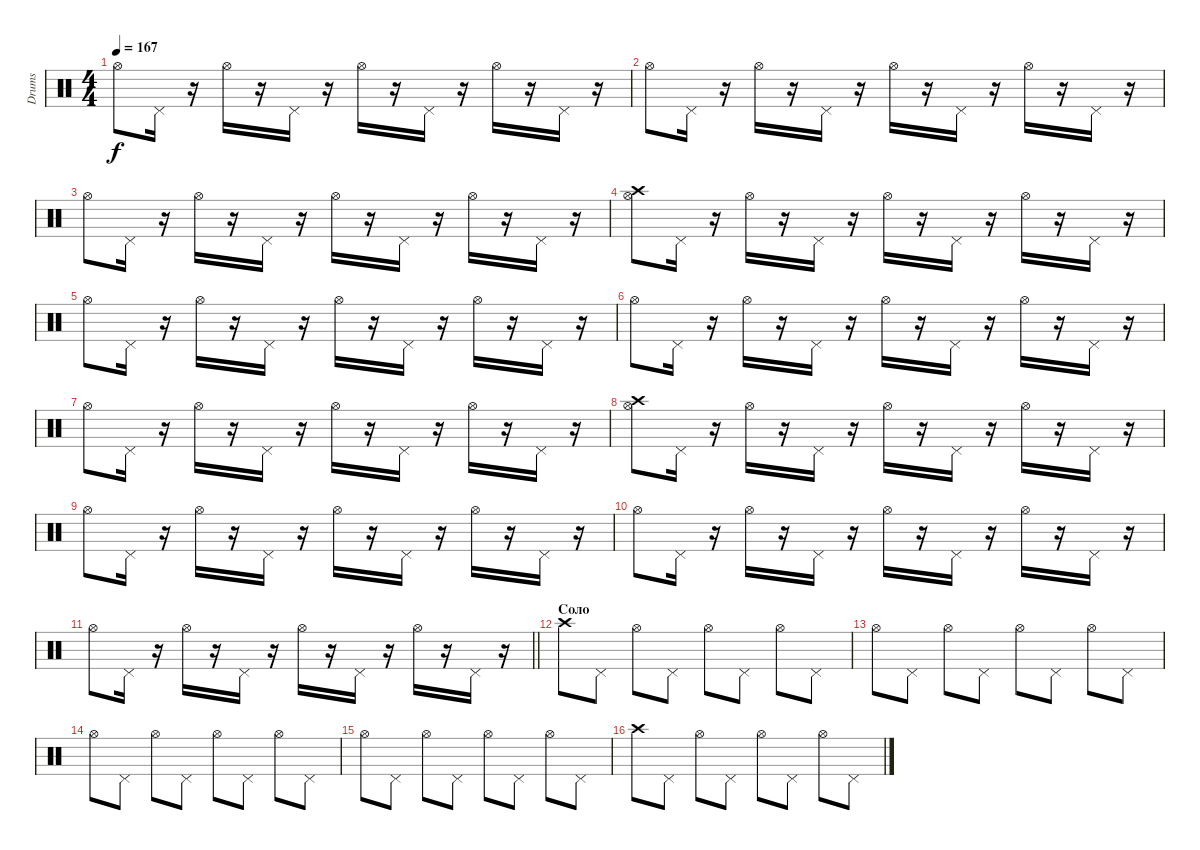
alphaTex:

\track ("Drums" "Drums") {instrument percussion}
\staff {score}
\articulation defaults
\ts (4 4)
\tempo 167
\clef neutral
\ks c "Hi-Hat (open)".8{dy f} "Pedal Hi-Hat (hit)".16
r.16 "Hi-Hat (open)".16 r.16 "Pedal Hi-Hat (hit)".16 r.16 "Hi-Hat (open)".16 r.16 "Pedal Hi-Hat (hit)".16 r.16 "Hi-Hat (open)".16 r.16 "Pedal Hi-Hat (hit)".16 r.16 |
"Hi-Hat (open)".8 "Pedal Hi-Hat (hit)".16 r.16 "Hi-Hat (open)".16 r.16 "Pedal Hi-Hat (hit)".16 r.16 "Hi-Hat (open)".16 r.16 "Pedal Hi-Hat (hit)".16 r.16 "Hi-Hat (open)".16 r.16 "Pedal Hi-Hat (hit)".16 r.16 |
"Hi-Hat (open)".8 "Pedal Hi-Hat (hit)".16 r.16 "Hi-Hat (open)".16 r.16 "Pedal Hi-Hat (hit)".16 r.16 "Hi-Hat (open)".16 r.16 "Pedal Hi-Hat (hit)".16 r.16 "Hi-Hat (open)".16 r.16 "Pedal Hi-Hat (hit)".16 r.16 |
("Crash high (hit)" "Hi-Hat (open)").8 "Pedal Hi-Hat (hit)".16 r.16 "Hi-Hat (open)".16 r.16 "Pedal Hi-Hat (hit)".16 r.16 "Hi-Hat (open)".16 r.16 "Pedal Hi-Hat (hit)".16 r.16 "Hi-Hat (open)".16 r.16 "Pedal Hi-Hat (hit)".16 r.16 |
"Hi-Hat (open)".8 "Pedal Hi-Hat (hit)".16 r.16 "Hi-Hat (open)".16 r.16 "Pedal Hi-Hat (hit)".16 r.16 "Hi-Hat (open)".16 r.16 "Pedal Hi-Hat (hit)".16 r.16 "Hi-Hat (open)".16 r.16 "Pedal Hi-Hat (hit)".16 r.16 |
"Hi-Hat (open)".8 "Pedal Hi-Hat (hit)".16 r.16 "Hi-Hat (open)".16 r.16 "Pedal Hi-Hat (hit)".16 r.16 "Hi-Hat (open)".16 r.16 "Pedal Hi-Hat (hit)".16 r.16 "Hi-Hat (open)".16 r.16 "Pedal Hi-Hat (hit)".16 r.16 |
"Hi-Hat (open)".8 "Pedal Hi-Hat (hit)".16 r.16 "Hi-Hat (open)".16 r.16 "Pedal Hi-Hat (hit)".16 r.16 "Hi-Hat (open)".16 r.16 "Pedal Hi-Hat (hit)".16 r.16 "Hi-Hat (open)".16 r.16 "Pedal Hi-Hat (hit)".16 r.16 |
("Crash high (hit)" "Hi-Hat (open)").8 "Pedal Hi-Hat (hit)".16 r.16 "Hi-Hat (open)".16 r.16 "Pedal Hi-Hat (hit)".16 r.16 "Hi-Hat (open)".16 r.16 "Pedal Hi-Hat (hit)".16 r.16 "Hi-Hat (open)".16 r.16 "Pedal Hi-Hat (hit)".16 r.16 |
"Hi-Hat (open)".8 "Pedal Hi-Hat (hit)".16 r.16 "Hi-Hat (open)".16 r.16 "Pedal Hi-Hat (hit)".16 r.16 "Hi-Hat (open)".16 r.16 "Pedal Hi-Hat (hit)".16 r.16 "Hi-Hat (open)".16 r.16 "Pedal Hi-Hat (hit)".16 r.16 |
"Hi-Hat (open)".8 "Pedal Hi-Hat (hit)".16 r.16 "Hi-Hat (open)".16 r.16 "Pedal Hi-Hat (hit)".16 r.16 "Hi-Hat (open)".16 r.16 "Pedal Hi-Hat (hit)".16 r.16 "Hi-Hat (open)".16 r.16 "Pedal Hi-Hat (hit)".16 r.16 |
\barLineRight lightlight "Hi-Hat (open)".8 "Pedal Hi-Hat (hit)".16
r.16 "Hi-Hat (open)".16 r.16 "Pedal Hi-Hat (hit)".16 r.16 "Hi-Hat (open)".16 r.16 "Pedal Hi-Hat (hit)".16 r.16 "Hi-Hat (open)".16 r.16 "Pedal Hi-Hat (hit)".16 r.16 |
\section ("" "Соло")
"Crash high (hit)".8 "Pedal Hi-Hat (hit)".8 "Hi-Hat (open)".8 "Pedal Hi-Hat (hit)".8 "Hi-Hat (open)".8 "Pedal Hi-Hat (hit)".8 "Hi-Hat (open)".8 "Pedal Hi-Hat (hit)".8 |
"Hi-Hat (open)".8 "Pedal Hi-Hat (hit)".8 "Hi-Hat (open)".8 "Pedal Hi-Hat (hit)".8 "Hi-Hat (open)".8 "Pedal Hi-Hat (hit)".8 "Hi-Hat (open)".8 "Pedal Hi-Hat (hit)".8 |
"Hi-Hat (open)".8 "Pedal Hi-Hat (hit)".8 "Hi-Hat (open)".8 "Pedal Hi-Hat (hit)".8 "Hi-Hat (open)".8 "Pedal Hi-Hat (hit)".8 "Hi-Hat (open)".8 "Pedal Hi-Hat (hit)".8 |
"Hi-Hat (open)".8 "Pedal Hi-Hat (hit)".8 "Hi-Hat (open)".8 "Pedal Hi-Hat (hit)".8 "Hi-Hat (open)".8 "Pedal Hi-Hat (hit)".8 "Hi-Hat (open)".8 "Pedal Hi-Hat (hit)".8 |
"Crash high (hit)".8 "Pedal Hi-Hat (hit)".8 "Hi-Hat (open)".8 "Pedal Hi-Hat (hit)".8 "Hi-Hat (open)".8 "Pedal Hi-Hat (hit)".8 "Hi-Hat (open)".8 "Pedal Hi-Hat (hit)".8
